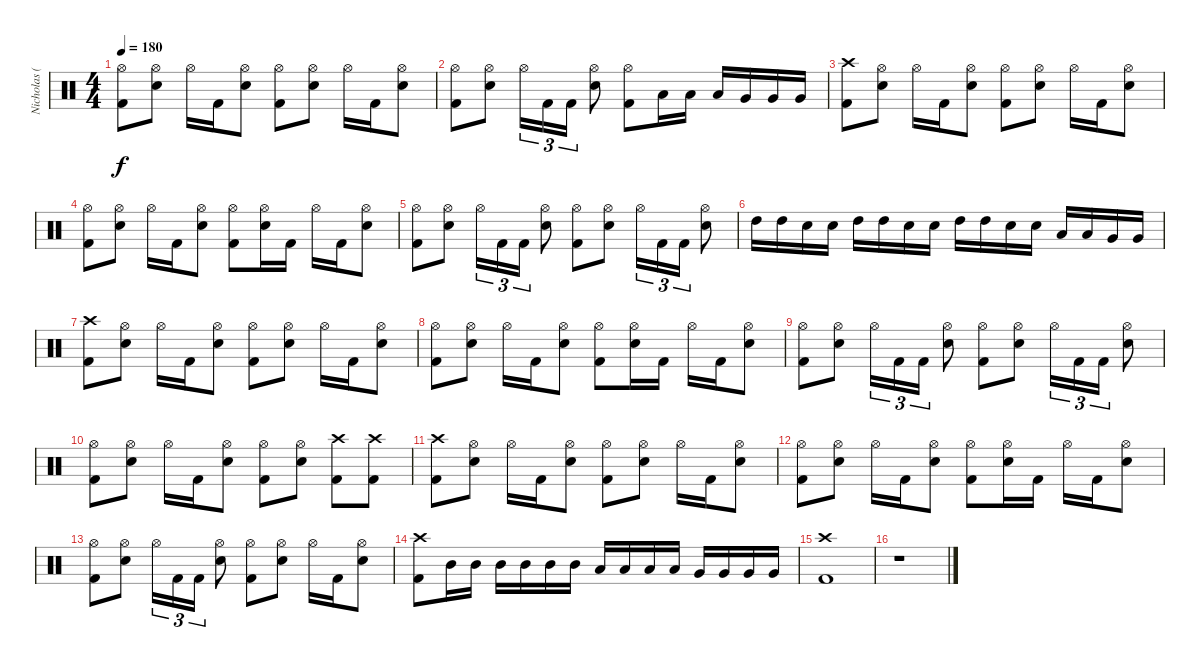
\track ("Nicholas (Drums)" "Nicholas (") {instrument percussion}
\staff {score}
\articulation defaults
\ts (4 4)
\tempo 180
\clef neutral
\ks c
("Hi-Hat (open)" "Kick (hit) 2").8{dy f} ("Hi-Hat (open)" "Electric Snare (hit)").8 "Hi-Hat (open)".16 "Kick (hit) 2".16 ("Hi-Hat (open)" "Electric Snare (hit)").8 ("Hi-Hat (open)" "Kick (hit) 2").8 ("Hi-Hat (open)" "Electric Snare (hit)").8 "Hi-Hat (open)".16 "Kick (hit) 2".16 ("Hi-Hat (open)" "Electric Snare (hit)").8 |
("Hi-Hat (open)" "Kick (hit) 2").8 ("Hi-Hat (open)" "Electric Snare (hit)").8 "Hi-Hat (open)".16{tu (3 2)} "Kick (hit) 2".16{tu (3 2)} "Kick (hit) 2".16{tu (3 2)} ("Hi-Hat (open)" "Electric Snare (hit)").8 ("Hi-Hat (open)" "Kick (hit) 2").8 "Low Tom (hit)".16 "Low Tom (hit)".16 "Low Tom (hit)".16 "Very Low Tom (hit)".16 "Very Low Tom (hit)".16 "Very Low Tom (hit)".16 |
("Crash high (hit)" "Kick (hit) 2").8 ("Hi-Hat (open)" "Electric Snare (hit)").8 "Hi-Hat (open)".16 "Kick (hit) 2".16 ("Hi-Hat (open)" "Electric Snare (hit)").8 ("Hi-Hat (open)" "Kick (hit) 2").8 ("Hi-Hat (open)" "Electric Snare (hit)").8 "Hi-Hat (open)".16 "Kick (hit) 2".16 ("Hi-Hat (open)" "Electric Snare (hit)").8 |
("Hi-Hat (open)" "Kick (hit) 2").8 ("Hi-Hat (open)" "Electric Snare (hit)").8 "Hi-Hat (open)".16 "Kick (hit) 2".16 ("Hi-Hat (open)" "Electric Snare (hit)").8 ("Hi-Hat (open)" "Kick (hit) 2").8 ("Hi-Hat (open)" "Electric Snare (hit)").16 "Kick (hit) 2".16 "Hi-Hat (open)".16 "Kick (hit) 2".16 ("Hi-Hat (open)" "Electric Snare (hit)").8 |
("Hi-Hat (open)" "Kick (hit) 2").8 ("Hi-Hat (open)" "Electric Snare (hit)").8 "Hi-Hat (open)".16{tu (3 2)} "Kick (hit) 2".16{tu (3 2)} "Kick (hit) 2".16{tu (3 2)} ("Hi-Hat (open)" "Electric Snare (hit)").8 ("Hi-Hat (open)" "Kick (hit) 2").8 ("Hi-Hat (open)" "Electric Snare (hit)").8 "Hi-Hat (open)".16{tu (3 2)} "Kick (hit) 2".16{tu (3 2)} "Kick (hit) 2".16{tu (3 2)} ("Hi-Hat (open)" "Electric Snare (hit)").8 |
"High Tom (hit)".16 "High Tom (hit)".16 "Electric Snare (hit)".16 "Electric Snare (hit)".16 "High Tom (hit)".16 "High Tom (hit)".16 "Electric Snare (hit)".16 "Electric Snare (hit)".16 "High Tom (hit)".16 "High Tom (hit)".16 "Electric Snare (hit)".16 "Electric Snare (hit)".16 "Low Tom (hit)".16 "Low Tom (hit)".16 "Very Low Tom (hit)".16 "Very Low Tom (hit)".16 |
("Crash high (hit)" "Kick (hit) 2").8 ("Hi-Hat (open)" "Electric Snare (hit)").8 "Hi-Hat (open)".16 "Kick (hit) 2".16 ("Hi-Hat (open)" "Electric Snare (hit)").8 ("Hi-Hat (open)" "Kick (hit) 2").8 ("Hi-Hat (open)" "Electric Snare (hit)").8 "Hi-Hat (open)".16 "Kick (hit) 2".16 ("Hi-Hat (open)" "Electric Snare (hit)").8 |
("Hi-Hat (open)" "Kick (hit) 2").8 ("Hi-Hat (open)" "Electric Snare (hit)").8 "Hi-Hat (open)".16 "Kick (hit) 2".16 ("Hi-Hat (open)" "Electric Snare (hit)").8 ("Hi-Hat (open)" "Kick (hit) 2").8 ("Hi-Hat (open)" "Electric Snare (hit)").16 "Kick (hit) 2".16 "Hi-Hat (open)".16 "Kick (hit) 2".16 ("Hi-Hat (open)" "Electric Snare (hit)").8 |
("Hi-Hat (open)" "Kick (hit) 2").8 ("Hi-Hat (open)" "Electric Snare (hit)").8 "Hi-Hat (open)".16{tu (3 2)} "Kick (hit) 2".16{tu (3 2)} "Kick (hit) 2".16{tu (3 2)} ("Hi-Hat (open)" "Electric Snare (hit)").8 ("Hi-Hat (open)" "Kick (hit) 2").8 ("Hi-Hat (open)" "Electric Snare (hit)").8 "Hi-Hat (open)".16{tu (3 2)} "Kick (hit) 2".16{tu (3 2)} "Kick (hit) 2".16{tu (3 2)} ("Hi-Hat (open)" "Electric Snare (hit)").8 |
("Hi-Hat (open)" "Kick (hit) 2").8 ("Hi-Hat (open)" "Electric Snare (hit)").8 "Hi-Hat (open)".16 "Kick (hit) 2".16 ("Hi-Hat (open)" "Electric Snare (hit)").8 ("Hi-Hat (open)" "Kick (hit) 2").8 ("Hi-Hat (open)" "Electric Snare (hit)").8 ("Crash high (hit)" "Kick (hit) 2").8 ("Crash high (hit)" "Kick (hit) 2").8 |
("Crash high (hit)" "Kick (hit) 2").8 ("Hi-Hat (open)" "Electric Snare (hit)").8 "Hi-Hat (open)".16 "Kick (hit) 2".16 ("Hi-Hat (open)" "Electric Snare (hit)").8 ("Hi-Hat (open)" "Kick (hit) 2").8 ("Hi-Hat (open)" "Electric Snare (hit)").8 "Hi-Hat (open)".16 "Kick (hit) 2".16 ("Hi-Hat (open)" "Electric Snare (hit)").8 |
("Hi-Hat (open)" "Kick (hit) 2").8 ("Hi-Hat (open)" "Electric Snare (hit)").8 "Hi-Hat (open)".16 "Kick (hit) 2".16 ("Hi-Hat (open)" "Electric Snare (hit)").8 ("Hi-Hat (open)" "Kick (hit) 2").8 ("Hi-Hat (open)" "Electric Snare (hit)").16 "Kick (hit) 2".16 "Hi-Hat (open)".16 "Kick (hit) 2".16 ("Hi-Hat (open)" "Electric Snare (hit)").8 |
("Hi-Hat (open)" "Kick (hit) 2").8 ("Hi-Hat (open)" "Electric Snare (hit)").8 "Hi-Hat (open)".16{tu (3 2)} "Kick (hit) 2".16{tu (3 2)} "Kick (hit) 2".16{tu (3 2)} ("Hi-Hat (open)" "Electric Snare (hit)").8 ("Hi-Hat (open)" "Kick (hit) 2").8 ("Hi-Hat (open)" "Electric Snare (hit)").8 "Hi-Hat (open)".16 "Kick (hit) 2".16 ("Hi-Hat (open)" "Electric Snare (hit)").8 |
("Crash high (hit)" "Kick (hit) 2").8 "Mid Tom (hit)".16 "Mid Tom (hit)".16 "Mid Tom (hit)".16 "Mid Tom (hit)".16 "Mid Tom (hit)".16 "Mid Tom (hit)".16 "Low Tom (hit)".16 "Low Tom (hit)".16 "Low Tom (hit)".16 "Low Tom (hit)".16 "Very Low Tom (hit)".16 "Very Low Tom (hit)".16 "Very Low Tom (hit)".16 "Very Low Tom (hit)".16 |
("Crash high (hit)" "Kick (hit) 2").1 |
r.1
